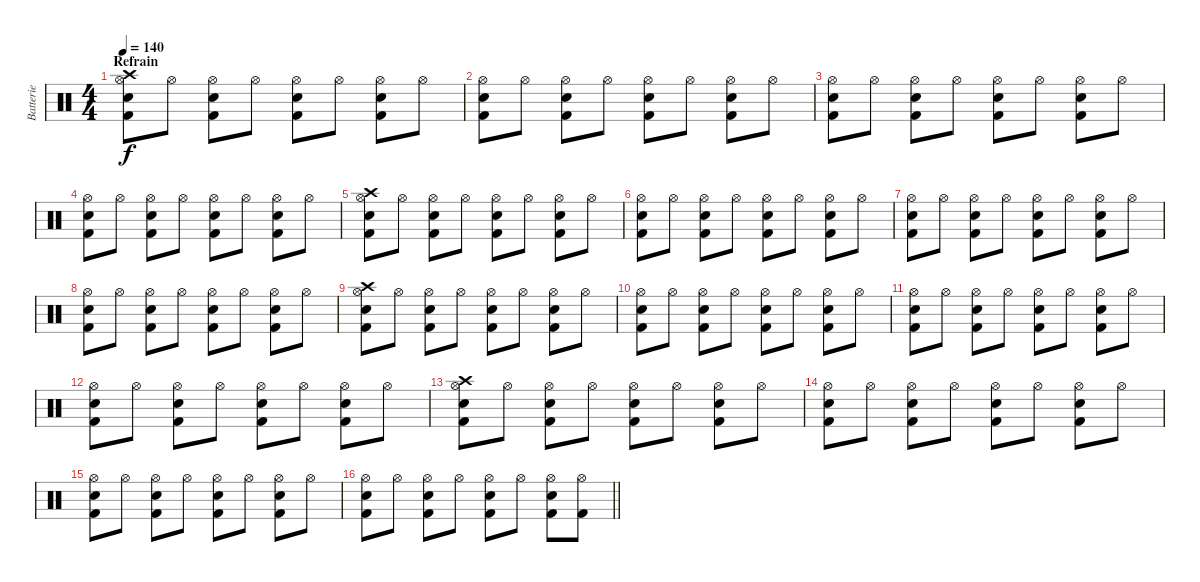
\track ("Batterie" "Batterie") {instrument percussion}
\staff {score}
\articulation defaults
\ts (4 4)
\section ("" "Refrain")
\tempo 140
\clef neutral
\ks c
("Crash high (hit)" "Hi-Hat (open)" "Electric Snare (hit)" "Kick (hit) 2").8{dy f} "Hi-Hat (open)".8 ("Hi-Hat (open)" "Electric Snare (hit)" "Kick (hit) 2").8 "Hi-Hat (open)".8 ("Hi-Hat (open)" "Electric Snare (hit)" "Kick (hit) 2").8 "Hi-Hat (open)".8 ("Hi-Hat (open)" "Electric Snare (hit)" "Kick (hit) 2").8 "Hi-Hat (open)".8 |
("Hi-Hat (open)" "Electric Snare (hit)" "Kick (hit) 2").8 "Hi-Hat (open)".8 ("Hi-Hat (open)" "Electric Snare (hit)" "Kick (hit) 2").8 "Hi-Hat (open)".8 ("Hi-Hat (open)" "Electric Snare (hit)" "Kick (hit) 2").8 "Hi-Hat (open)".8 ("Hi-Hat (open)" "Electric Snare (hit)" "Kick (hit) 2").8 "Hi-Hat (open)".8 |
("Hi-Hat (open)" "Electric Snare (hit)" "Kick (hit) 2").8 "Hi-Hat (open)".8 ("Hi-Hat (open)" "Electric Snare (hit)" "Kick (hit) 2").8 "Hi-Hat (open)".8 ("Hi-Hat (open)" "Electric Snare (hit)" "Kick (hit) 2").8 "Hi-Hat (open)".8 ("Hi-Hat (open)" "Electric Snare (hit)" "Kick (hit) 2").8 "Hi-Hat (open)".8 |
("Hi-Hat (open)" "Electric Snare (hit)" "Kick (hit) 2").8 "Hi-Hat (open)".8 ("Hi-Hat (open)" "Electric Snare (hit)" "Kick (hit) 2").8 "Hi-Hat (open)".8 ("Hi-Hat (open)" "Electric Snare (hit)" "Kick (hit) 2").8 "Hi-Hat (open)".8 ("Hi-Hat (open)" "Electric Snare (hit)" "Kick (hit) 2").8 "Hi-Hat (open)".8 |
("Crash high (hit)" "Hi-Hat (open)" "Electric Snare (hit)" "Kick (hit) 2").8 "Hi-Hat (open)".8 ("Hi-Hat (open)" "Electric Snare (hit)" "Kick (hit) 2").8 "Hi-Hat (open)".8 ("Hi-Hat (open)" "Electric Snare (hit)" "Kick (hit) 2").8 "Hi-Hat (open)".8 ("Hi-Hat (open)" "Electric Snare (hit)" "Kick (hit) 2").8 "Hi-Hat (open)".8 |
("Hi-Hat (open)" "Electric Snare (hit)" "Kick (hit) 2").8 "Hi-Hat (open)".8 ("Hi-Hat (open)" "Electric Snare (hit)" "Kick (hit) 2").8 "Hi-Hat (open)".8 ("Hi-Hat (open)" "Electric Snare (hit)" "Kick (hit) 2").8 "Hi-Hat (open)".8 ("Hi-Hat (open)" "Electric Snare (hit)" "Kick (hit) 2").8 "Hi-Hat (open)".8 |
("Hi-Hat (open)" "Electric Snare (hit)" "Kick (hit) 2").8 "Hi-Hat (open)".8 ("Hi-Hat (open)" "Electric Snare (hit)" "Kick (hit) 2").8 "Hi-Hat (open)".8 ("Hi-Hat (open)" "Electric Snare (hit)" "Kick (hit) 2").8 "Hi-Hat (open)".8 ("Hi-Hat (open)" "Electric Snare (hit)" "Kick (hit) 2").8 "Hi-Hat (open)".8 |
("Hi-Hat (open)" "Electric Snare (hit)" "Kick (hit) 2").8 "Hi-Hat (open)".8 ("Hi-Hat (open)" "Electric Snare (hit)" "Kick (hit) 2").8 "Hi-Hat (open)".8 ("Hi-Hat (open)" "Electric Snare (hit)" "Kick (hit) 2").8 "Hi-Hat (open)".8 ("Hi-Hat (open)" "Electric Snare (hit)" "Kick (hit) 2").8 "Hi-Hat (open)".8 |
("Crash high (hit)" "Hi-Hat (open)" "Electric Snare (hit)" "Kick (hit) 2").8 "Hi-Hat (open)".8 ("Hi-Hat (open)" "Electric Snare (hit)" "Kick (hit) 2").8 "Hi-Hat (open)".8 ("Hi-Hat (open)" "Electric Snare (hit)" "Kick (hit) 2").8 "Hi-Hat (open)".8 ("Hi-Hat (open)" "Electric Snare (hit)" "Kick (hit) 2").8 "Hi-Hat (open)".8 |
("Hi-Hat (open)" "Electric Snare (hit)" "Kick (hit) 2").8 "Hi-Hat (open)".8 ("Hi-Hat (open)" "Electric Snare (hit)" "Kick (hit) 2").8 "Hi-Hat (open)".8 ("Hi-Hat (open)" "Electric Snare (hit)" "Kick (hit) 2").8 "Hi-Hat (open)".8 ("Hi-Hat (open)" "Electric Snare (hit)" "Kick (hit) 2").8 "Hi-Hat (open)".8 |
("Hi-Hat (open)" "Electric Snare (hit)" "Kick (hit) 2").8 "Hi-Hat (open)".8 ("Hi-Hat (open)" "Electric Snare (hit)" "Kick (hit) 2").8 "Hi-Hat (open)".8 ("Hi-Hat (open)" "Electric Snare (hit)" "Kick (hit) 2").8 "Hi-Hat (open)".8 ("Hi-Hat (open)" "Electric Snare (hit)" "Kick (hit) 2").8 "Hi-Hat (open)".8 |
("Hi-Hat (open)" "Electric Snare (hit)" "Kick (hit) 2").8 "Hi-Hat (open)".8 ("Hi-Hat (open)" "Electric Snare (hit)" "Kick (hit) 2").8 "Hi-Hat (open)".8 ("Hi-Hat (open)" "Electric Snare (hit)" "Kick (hit) 2").8 "Hi-Hat (open)".8 ("Hi-Hat (open)" "Electric Snare (hit)" "Kick (hit) 2").8 "Hi-Hat (open)".8 |
("Crash high (hit)" "Hi-Hat (open)" "Electric Snare (hit)" "Kick (hit) 2").8 "Hi-Hat (open)".8 ("Hi-Hat (open)" "Electric Snare (hit)" "Kick (hit) 2").8 "Hi-Hat (open)".8 ("Hi-Hat (open)" "Electric Snare (hit)" "Kick (hit) 2").8 "Hi-Hat (open)".8 ("Hi-Hat (open)" "Electric Snare (hit)" "Kick (hit) 2").8 "Hi-Hat (open)".8 |
("Hi-Hat (open)" "Electric Snare (hit)" "Kick (hit) 2").8 "Hi-Hat (open)".8 ("Hi-Hat (open)" "Electric Snare (hit)" "Kick (hit) 2").8 "Hi-Hat (open)".8 ("Hi-Hat (open)" "Electric Snare (hit)" "Kick (hit) 2").8 "Hi-Hat (open)".8 ("Hi-Hat (open)" "Electric Snare (hit)" "Kick (hit) 2").8 "Hi-Hat (open)".8 |
("Hi-Hat (open)" "Electric Snare (hit)" "Kick (hit) 2").8 "Hi-Hat (open)".8 ("Hi-Hat (open)" "Electric Snare (hit)" "Kick (hit) 2").8 "Hi-Hat (open)".8 ("Hi-Hat (open)" "Electric Snare (hit)" "Kick (hit) 2").8 "Hi-Hat (open)".8 ("Hi-Hat (open)" "Electric Snare (hit)" "Kick (hit) 2").8 "Hi-Hat (open)".8 |
\barLineRight lightlight
("Hi-Hat (open)" "Electric Snare (hit)" "Kick (hit) 2").8 "Hi-Hat (open)".8 ("Hi-Hat (open)" "Electric Snare (hit)" "Kick (hit) 2").8 "Hi-Hat (open)".8 ("Hi-Hat (open)" "Electric Snare (hit)" "Kick (hit) 2").8 "Hi-Hat (open)".8 ("Hi-Hat (open)" "Electric Snare (hit)" "Kick (hit) 2").8 ("Hi-Hat (open)" "Kick (hit) 2").8
